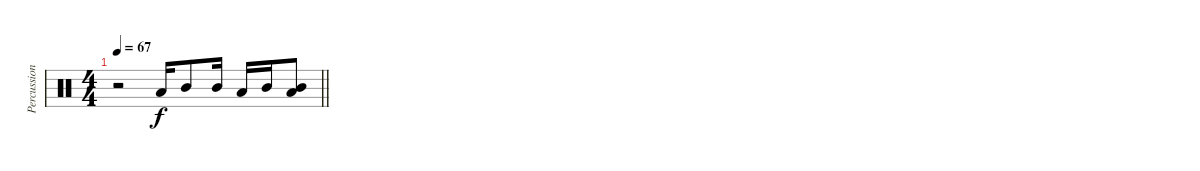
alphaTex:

\track ("Percussion" "Percussion") {instrument percussion}
\staff {score}
\articulation defaults
\ts (4 4)
\tempo 67
\clef neutral
\barLineRight lightlight
\ks c
r.2{dy f} "Low Tom (hit)".16 "Mid Tom (hit)".8 "Mid Tom (hit)".16 "Low Tom (hit)".16 "Mid Tom (hit)".16 ("Low Tom (hit)" "Mid Tom (hit)").8
